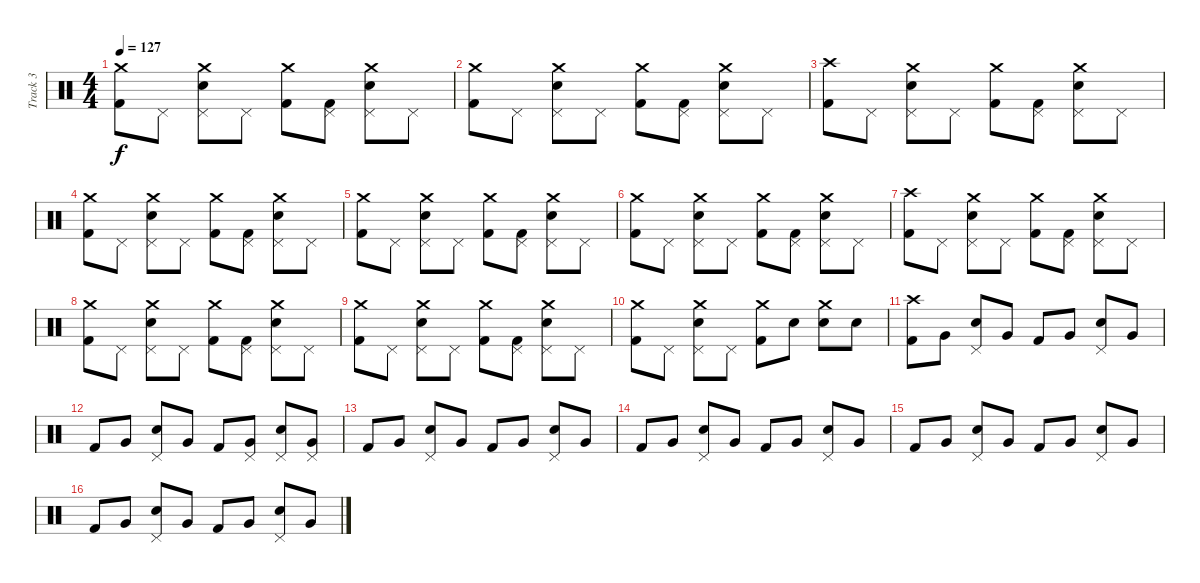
\track ("Track 3" "Track 3") {instrument percussion}
\staff {score}
\articulation defaults
\ts (4 4)
\tempo 127
\clef neutral
\ks c
("Crash medium (hit)" "Kick (hit) 2").8{dy f} "Pedal Hi-Hat (hit)".8 ("Crash medium (hit)" "Pedal Hi-Hat (hit)" "Snare (hit) 2").8 "Pedal Hi-Hat (hit)".8 ("Crash medium (hit)" "Kick (hit) 2").8 ("Pedal Hi-Hat (hit)" "Kick (hit) 2").8 ("Crash medium (hit)" "Pedal Hi-Hat (hit)" "Snare (hit) 2").8 "Pedal Hi-Hat (hit)".8 |
("Crash medium (hit)" "Kick (hit) 2").8 "Pedal Hi-Hat (hit)".8 ("Crash medium (hit)" "Pedal Hi-Hat (hit)" "Snare (hit) 2").8 "Pedal Hi-Hat (hit)".8 ("Crash medium (hit)" "Kick (hit) 2").8 ("Pedal Hi-Hat (hit)" "Kick (hit) 2").8 ("Crash medium (hit)" "Pedal Hi-Hat (hit)" "Snare (hit) 2").8 "Pedal Hi-Hat (hit)".8 |
("Crash high (hit)" "Kick (hit) 2").8 "Pedal Hi-Hat (hit)".8 ("Crash medium (hit)" "Pedal Hi-Hat (hit)" "Snare (hit) 2").8 "Pedal Hi-Hat (hit)".8 ("Crash medium (hit)" "Kick (hit) 2").8 ("Pedal Hi-Hat (hit)" "Kick (hit) 2").8 ("Crash medium (hit)" "Pedal Hi-Hat (hit)" "Snare (hit) 2").8 "Pedal Hi-Hat (hit)".8 |
("Crash medium (hit)" "Kick (hit) 2").8 "Pedal Hi-Hat (hit)".8 ("Crash medium (hit)" "Pedal Hi-Hat (hit)" "Snare (hit) 2").8 "Pedal Hi-Hat (hit)".8 ("Crash medium (hit)" "Kick (hit) 2").8 ("Pedal Hi-Hat (hit)" "Kick (hit) 2").8 ("Crash medium (hit)" "Pedal Hi-Hat (hit)" "Snare (hit) 2").8 "Pedal Hi-Hat (hit)".8 |
("Crash medium (hit)" "Kick (hit) 2").8 "Pedal Hi-Hat (hit)".8 ("Crash medium (hit)" "Pedal Hi-Hat (hit)" "Snare (hit) 2").8 "Pedal Hi-Hat (hit)".8 ("Crash medium (hit)" "Kick (hit) 2").8 ("Pedal Hi-Hat (hit)" "Kick (hit) 2").8 ("Crash medium (hit)" "Pedal Hi-Hat (hit)" "Snare (hit) 2").8 "Pedal Hi-Hat (hit)".8 |
("Crash medium (hit)" "Kick (hit) 2").8 "Pedal Hi-Hat (hit)".8 ("Crash medium (hit)" "Pedal Hi-Hat (hit)" "Snare (hit) 2").8 "Pedal Hi-Hat (hit)".8 ("Crash medium (hit)" "Kick (hit) 2").8 ("Pedal Hi-Hat (hit)" "Kick (hit) 2").8 ("Crash medium (hit)" "Pedal Hi-Hat (hit)" "Snare (hit) 2").8 "Pedal Hi-Hat (hit)".8 |
("Crash high (hit)" "Kick (hit) 2").8 "Pedal Hi-Hat (hit)".8 ("Crash medium (hit)" "Pedal Hi-Hat (hit)" "Snare (hit) 2").8 "Pedal Hi-Hat (hit)".8 ("Crash medium (hit)" "Kick (hit) 2").8 ("Pedal Hi-Hat (hit)" "Kick (hit) 2").8 ("Crash medium (hit)" "Pedal Hi-Hat (hit)" "Snare (hit) 2").8 "Pedal Hi-Hat (hit)".8 |
("Crash medium (hit)" "Kick (hit) 2").8 "Pedal Hi-Hat (hit)".8 ("Crash medium (hit)" "Pedal Hi-Hat (hit)" "Snare (hit) 2").8 "Pedal Hi-Hat (hit)".8 ("Crash medium (hit)" "Kick (hit) 2").8 ("Pedal Hi-Hat (hit)" "Kick (hit) 2").8 ("Crash medium (hit)" "Pedal Hi-Hat (hit)" "Snare (hit) 2").8 "Pedal Hi-Hat (hit)".8 |
("Crash medium (hit)" "Kick (hit) 2").8 "Pedal Hi-Hat (hit)".8 ("Crash medium (hit)" "Pedal Hi-Hat (hit)" "Snare (hit) 2").8 "Pedal Hi-Hat (hit)".8 ("Crash medium (hit)" "Kick (hit) 2").8 ("Pedal Hi-Hat (hit)" "Kick (hit) 2").8 ("Crash medium (hit)" "Pedal Hi-Hat (hit)" "Snare (hit) 2").8 "Pedal Hi-Hat (hit)".8 |
("Crash medium (hit)" "Kick (hit) 2").8 "Pedal Hi-Hat (hit)".8 ("Crash medium (hit)" "Pedal Hi-Hat (hit)" "Snare (hit) 2").8 "Pedal Hi-Hat (hit)".8 ("Crash medium (hit)" "Kick (hit) 2").8 "Snare (hit) 2".8 ("Crash medium (hit)" "Snare (hit) 2").8 "Snare (hit) 2".8 |
("Crash high (hit)" "Kick (hit) 2").8 "Very Low Tom (hit)".8 ("Pedal Hi-Hat (hit)" "Snare (hit) 2").8 "Very Low Tom (hit)".8 "Kick (hit) 2".8 "Very Low Tom (hit)".8 ("Pedal Hi-Hat (hit)" "Snare (hit) 2").8 "Very Low Tom (hit)".8 |
"Kick (hit) 2".8 "Very Low Tom (hit)".8 ("Pedal Hi-Hat (hit)" "Snare (hit) 2").8 "Very Low Tom (hit)".8 "Kick (hit) 2".8 ("Pedal Hi-Hat (hit)" "Very Low Tom (hit)").8 ("Pedal Hi-Hat (hit)" "Snare (hit) 2").8 ("Pedal Hi-Hat (hit)" "Very Low Tom (hit)").8 |
"Kick (hit) 2".8 "Very Low Tom (hit)".8 ("Pedal Hi-Hat (hit)" "Snare (hit) 2").8 "Very Low Tom (hit)".8 "Kick (hit) 2".8 "Very Low Tom (hit)".8 ("Pedal Hi-Hat (hit)" "Snare (hit) 2").8 "Very Low Tom (hit)".8 |
"Kick (hit) 2".8 "Very Low Tom (hit)".8 ("Pedal Hi-Hat (hit)" "Snare (hit) 2").8 "Very Low Tom (hit)".8 "Kick (hit) 2".8 "Very Low Tom (hit)".8 ("Pedal Hi-Hat (hit)" "Snare (hit) 2").8 "Very Low Tom (hit)".8 |
"Kick (hit) 2".8 "Very Low Tom (hit)".8 ("Pedal Hi-Hat (hit)" "Snare (hit) 2").8 "Very Low Tom (hit)".8 "Kick (hit) 2".8 "Very Low Tom (hit)".8 ("Pedal Hi-Hat (hit)" "Snare (hit) 2").8 "Very Low Tom (hit)".8 |
"Kick (hit) 2".8 "Very Low Tom (hit)".8 ("Pedal Hi-Hat (hit)" "Snare (hit) 2").8 "Very Low Tom (hit)".8 "Kick (hit) 2".8 "Very Low Tom (hit)".8 ("Pedal Hi-Hat (hit)" "Snare (hit) 2").8 "Very Low Tom (hit)".8
